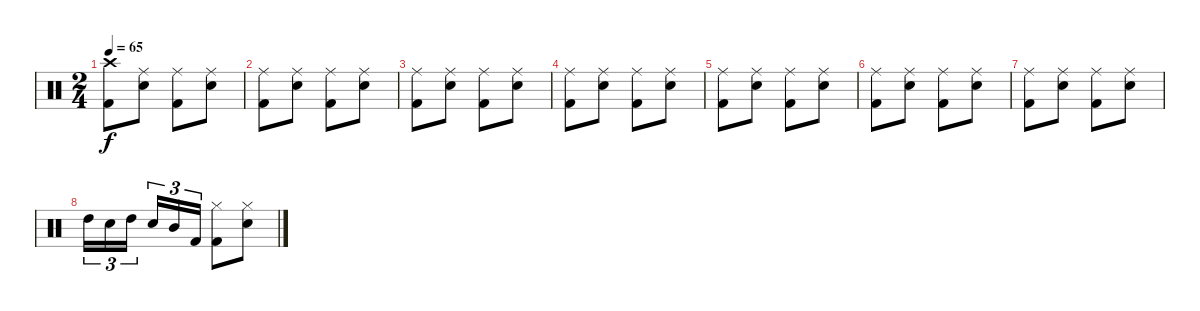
\track "" {instrument percussion}
\staff {score}
\articulation defaults
\ts (2 4)
\tempo 65
\clef neutral
\ks c
("Crash high (hit)" "Kick (hit) 2").8{dy f} ("Ride (middle)" "Snare (hit) 2").8 ("Ride (middle)" "Kick (hit) 2").8 ("Ride (middle)" "Snare (hit) 2").8 |
("Ride (middle)" "Kick (hit) 2").8 ("Ride (middle)" "Snare (hit) 2").8 ("Ride (middle)" "Kick (hit) 2").8 ("Ride (middle)" "Snare (hit) 2").8 |
("Ride (middle)" "Kick (hit) 2").8 ("Ride (middle)" "Snare (hit) 2").8 ("Ride (middle)" "Kick (hit) 2").8 ("Ride (middle)" "Snare (hit) 2").8 |
("Ride (middle)" "Kick (hit) 2").8 ("Ride (middle)" "Snare (hit) 2").8 ("Ride (middle)" "Kick (hit) 2").8 ("Ride (middle)" "Snare (hit) 2").8 |
("Ride (middle)" "Kick (hit) 2").8 ("Ride (middle)" "Snare (hit) 2").8 ("Ride (middle)" "Kick (hit) 2").8 ("Ride (middle)" "Snare (hit) 2").8 |
("Ride (middle)" "Kick (hit) 2").8 ("Ride (middle)" "Snare (hit) 2").8 ("Ride (middle)" "Kick (hit) 2").8 ("Ride (middle)" "Snare (hit) 2").8 |
("Ride (middle)" "Kick (hit) 2").8 ("Ride (middle)" "Snare (hit) 2").8 ("Ride (middle)" "Kick (hit) 2").8 ("Ride (middle)" "Snare (hit) 2").8 |
"High Tom (hit)".16{tu (3 2)} "Snare (hit) 2".16{tu (3 2)} "High Tom (hit)".16{tu (3 2) beam splitsecondary} "Snare (hit) 2".16{tu (3 2)} "Mid Tom (hit)".16{tu (3 2)} "Kick (hit) 2".16{tu (3 2)} ("Hi-Hat (closed)" "Kick (hit) 2").8 ("Hi-Hat (closed)" "Snare (hit) 2").8
